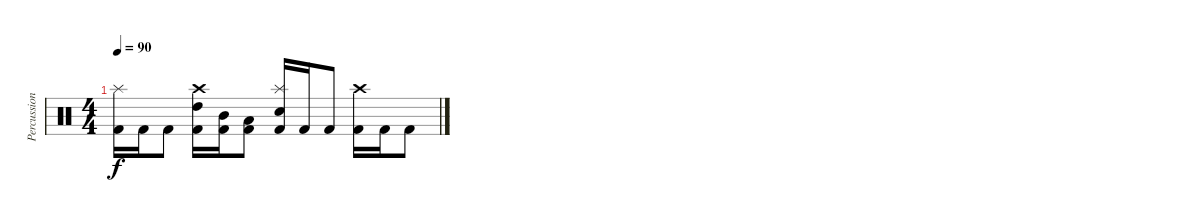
\track ("Percussion" "Percussion") {instrument percussion}
\staff {score}
\articulation defaults
\ts (4 4)
\tempo 90
\clef neutral
\ks c
("Kick (hit) 2" "Splash (hit)").16{dy f} "Kick (hit) 2".16 "Kick (hit) 2".8 ("Kick (hit) 2" "High Tom (hit)" "Crash high (hit)").16 ("Kick (hit) 2" "Mid Tom (hit)").16 ("Kick (hit) 2" "Low Tom (hit)").8 ("Kick (hit) 2" "Snare (hit) 2" "Splash (hit)").16 "Kick (hit) 2".16 "Kick (hit) 2".8 ("Kick (hit) 2" "Crash high (hit)").16 "Kick (hit) 2".16 "Kick (hit) 2".8
